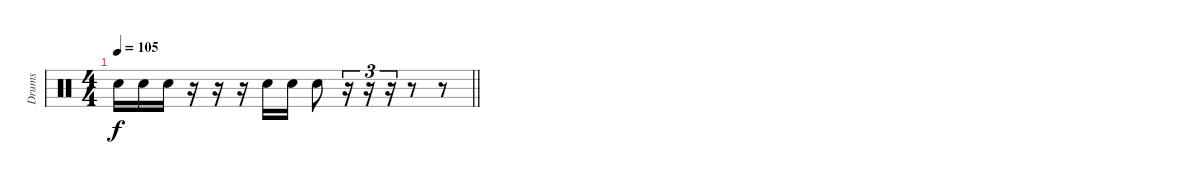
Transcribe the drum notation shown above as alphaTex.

\track ("Drums" "Drums") {instrument percussion}
\staff {score}
\articulation defaults
\ts (4 4)
\tempo 105
\clef neutral
\barLineRight lightlight
\ks c "Electric Snare (hit)".16{dy f} "Electric Snare (hit)".16 "Electric Snare (hit)".16
r.16 r.16 r.16 "Electric Snare (hit)".16 "Electric Snare (hit)".16 "Electric Snare (hit)".8 r.16{tu (3 2)} r.16{tu (3 2)} r.16{tu (3 2)} r.8 r.8
